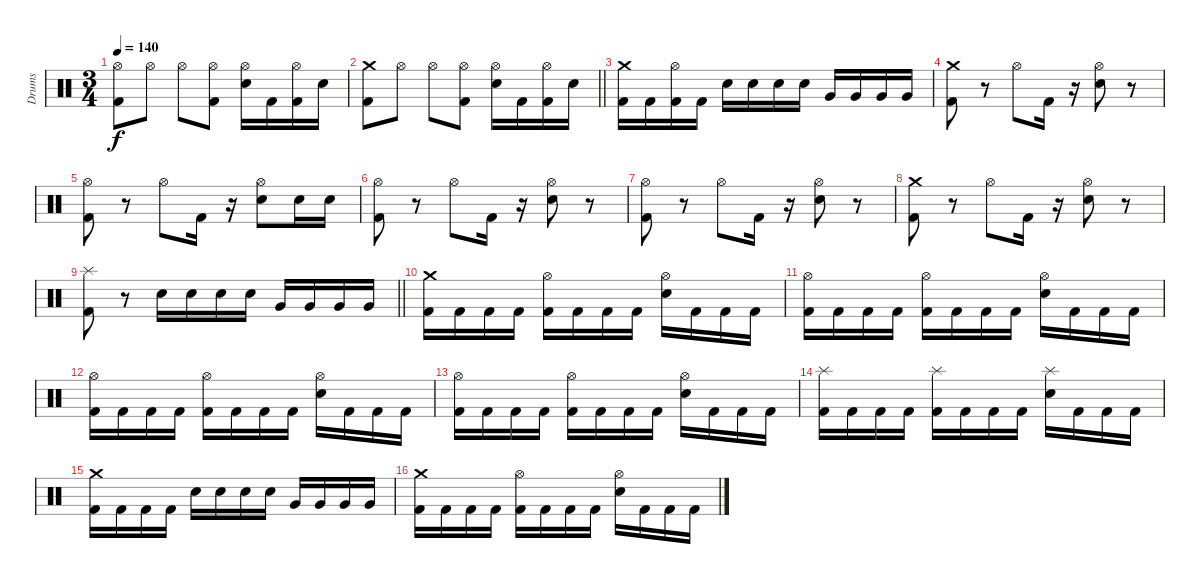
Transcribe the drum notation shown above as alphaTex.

\track ("Drums" "Drums") {instrument percussion}
\staff {score}
\articulation defaults
\ts (3 4)
\tempo 140
\clef neutral
\ks c
("Kick (hit) 2" "Hi-Hat (open)").8{dy f} "Hi-Hat (open)".8 "Hi-Hat (open)".8 ("Kick (hit) 2" "Hi-Hat (open)").8 ("Electric Snare (hit)" "Hi-Hat (open)").16 "Kick (hit) 2".16 ("Kick (hit) 2" "Hi-Hat (open)").16 "Electric Snare (hit)".16 |
\barLineRight lightlight
("Kick (hit) 2" "Crash medium (hit)").8 "Hi-Hat (open)".8 "Hi-Hat (open)".8 ("Kick (hit) 2" "Hi-Hat (open)").8 ("Electric Snare (hit)" "Hi-Hat (open)").16 "Kick (hit) 2".16 ("Kick (hit) 2" "Hi-Hat (open)").16 "Electric Snare (hit)".16 |
("Kick (hit) 2" "Crash medium (hit)").16 "Kick (hit) 2".16 ("Kick (hit) 2" "Hi-Hat (open)").16 "Kick (hit) 2".16 "Electric Snare (hit)".16 "Electric Snare (hit)".16 "Electric Snare (hit)".16 "Electric Snare (hit)".16 "Very Low Tom (hit)".16 "Very Low Tom (hit)".16 "Very Low Tom (hit)".16 "Very Low Tom (hit)".16 |
("Kick (hit) 2" "Crash medium (hit)").8 r.8 "Hi-Hat (open)".8 "Kick (hit) 2".16 r.16 ("Electric Snare (hit)" "Hi-Hat (open)").8 r.8 |
("Kick (hit) 2" "Hi-Hat (open)").8 r.8 "Hi-Hat (open)".8 "Kick (hit) 2".16 r.16 ("Electric Snare (hit)" "Hi-Hat (open)").8 "Electric Snare (hit)".16 "Electric Snare (hit)".16 |
("Kick (hit) 2" "Hi-Hat (open)").8 r.8 "Hi-Hat (open)".8 "Kick (hit) 2".16 r.16 ("Electric Snare (hit)" "Hi-Hat (open)").8 r.8 |
("Kick (hit) 2" "Hi-Hat (open)").8 r.8 "Hi-Hat (open)".8 "Kick (hit) 2".16 r.16 ("Electric Snare (hit)" "Hi-Hat (open)").8 r.8 |
("Kick (hit) 2" "Crash medium (hit)").8 r.8 "Hi-Hat (open)".8 "Kick (hit) 2".16 r.16 ("Electric Snare (hit)" "Hi-Hat (open)").8 r.8 |
\barLineRight lightlight
("Kick (hit) 2" "Splash (hit)").8 r.8 "Electric Snare (hit)".16 "Electric Snare (hit)".16 "Electric Snare (hit)".16 "Electric Snare (hit)".16 "Very Low Tom (hit)".16 "Very Low Tom (hit)".16 "Very Low Tom (hit)".16 "Very Low Tom (hit)".16 |
("Kick (hit) 2" "Crash medium (hit)").16 "Kick (hit) 2".16 "Kick (hit) 2".16 "Kick (hit) 2".16 ("Kick (hit) 2" "Hi-Hat (open)").16 "Kick (hit) 2".16 "Kick (hit) 2".16 "Kick (hit) 2".16 ("Electric Snare (hit)" "Hi-Hat (open)").16 "Kick (hit) 2".16 "Kick (hit) 2".16 "Kick (hit) 2".16 |
("Kick (hit) 2" "Hi-Hat (open)").16 "Kick (hit) 2".16 "Kick (hit) 2".16 "Kick (hit) 2".16 ("Kick (hit) 2" "Hi-Hat (open)").16 "Kick (hit) 2".16 "Kick (hit) 2".16 "Kick (hit) 2".16 ("Electric Snare (hit)" "Hi-Hat (open)").16 "Kick (hit) 2".16 "Kick (hit) 2".16 "Kick (hit) 2".16 |
("Kick (hit) 2" "Hi-Hat (open)").16 "Kick (hit) 2".16 "Kick (hit) 2".16 "Kick (hit) 2".16 ("Kick (hit) 2" "Hi-Hat (open)").16 "Kick (hit) 2".16 "Kick (hit) 2".16 "Kick (hit) 2".16 ("Electric Snare (hit)" "Hi-Hat (open)").16 "Kick (hit) 2".16 "Kick (hit) 2".16 "Kick (hit) 2".16 |
("Kick (hit) 2" "Hi-Hat (open)").16 "Kick (hit) 2".16 "Kick (hit) 2".16 "Kick (hit) 2".16 ("Kick (hit) 2" "Hi-Hat (open)").16 "Kick (hit) 2".16 "Kick (hit) 2".16 "Kick (hit) 2".16 ("Electric Snare (hit)" "Hi-Hat (open)").16 "Kick (hit) 2".16 "Kick (hit) 2".16 "Kick (hit) 2".16 |
("Kick (hit) 2" "Splash (hit)").16 "Kick (hit) 2".16 "Kick (hit) 2".16 "Kick (hit) 2".16 ("Kick (hit) 2" "Splash (hit)").16 "Kick (hit) 2".16 "Kick (hit) 2".16 "Kick (hit) 2".16 ("Electric Snare (hit)" "Splash (hit)").16 "Kick (hit) 2".16 "Kick (hit) 2".16 "Kick (hit) 2".16 |
("Kick (hit) 2" "Crash medium (hit)").16 "Kick (hit) 2".16 "Kick (hit) 2".16 "Kick (hit) 2".16 "Electric Snare (hit)".16 "Electric Snare (hit)".16 "Electric Snare (hit)".16 "Electric Snare (hit)".16 "Very Low Tom (hit)".16 "Very Low Tom (hit)".16 "Very Low Tom (hit)".16 "Very Low Tom (hit)".16 |
("Kick (hit) 2" "Crash medium (hit)").16 "Kick (hit) 2".16 "Kick (hit) 2".16 "Kick (hit) 2".16 ("Kick (hit) 2" "Hi-Hat (open)").16 "Kick (hit) 2".16 "Kick (hit) 2".16 "Kick (hit) 2".16 ("Electric Snare (hit)" "Hi-Hat (open)").16 "Kick (hit) 2".16 "Kick (hit) 2".16 "Kick (hit) 2".16
